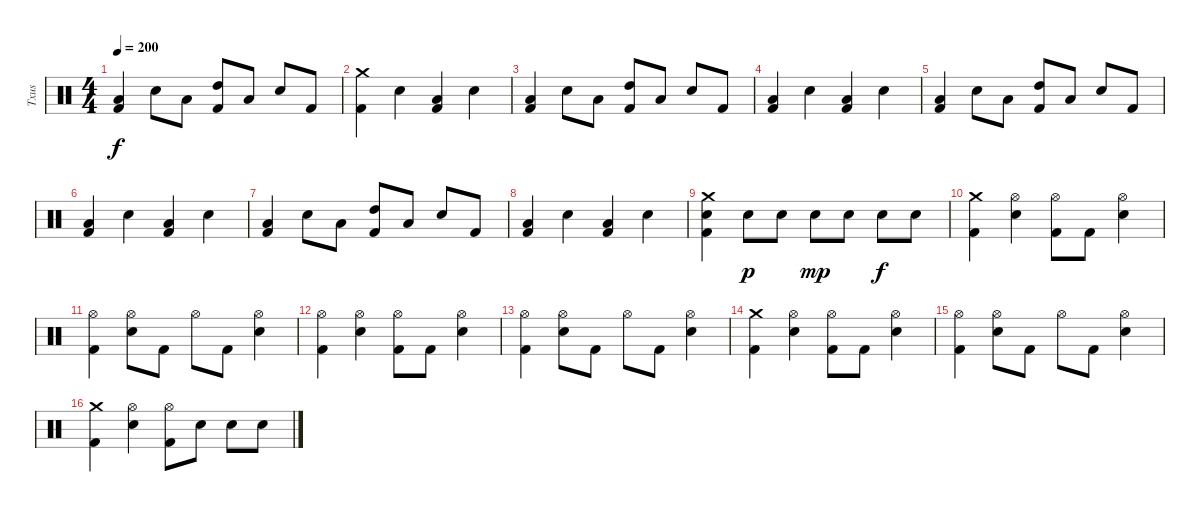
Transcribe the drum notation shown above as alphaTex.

\track ("Txus" "Txus") {instrument percussion}
\staff {score}
\articulation defaults
\ts (4 4)
\tempo 200
\clef neutral
\ks c
("Low Tom (hit)" "Kick (hit) 2").4{dy f} "Snare (hit) 2".8 "Low Tom (hit)".8 ("High Tom (hit)" "Kick (hit) 2").8 "Low Tom (hit)".8 "Snare (hit) 2".8 "Kick (hit) 2".8 |
("Crash medium (hit)" "Kick (hit) 2").4 "Snare (hit) 2".4 ("Low Tom (hit)" "Kick (hit) 2").4 "Snare (hit) 2".4 |
("Low Tom (hit)" "Kick (hit) 2").4 "Snare (hit) 2".8 "Low Tom (hit)".8 ("High Tom (hit)" "Kick (hit) 2").8 "Low Tom (hit)".8 "Snare (hit) 2".8 "Kick (hit) 2".8 |
("Low Tom (hit)" "Kick (hit) 2").4 "Snare (hit) 2".4 ("Low Tom (hit)" "Kick (hit) 2").4 "Snare (hit) 2".4 |
("Low Tom (hit)" "Kick (hit) 2").4 "Snare (hit) 2".8 "Low Tom (hit)".8 ("High Tom (hit)" "Kick (hit) 2").8 "Low Tom (hit)".8 "Snare (hit) 2".8 "Kick (hit) 2".8 |
("Low Tom (hit)" "Kick (hit) 2").4 "Snare (hit) 2".4 ("Low Tom (hit)" "Kick (hit) 2").4 "Snare (hit) 2".4 |
("Low Tom (hit)" "Kick (hit) 2").4 "Snare (hit) 2".8 "Low Tom (hit)".8 ("High Tom (hit)" "Kick (hit) 2").8 "Low Tom (hit)".8 "Snare (hit) 2".8 "Kick (hit) 2".8 |
("Low Tom (hit)" "Kick (hit) 2").4 "Snare (hit) 2".4 ("Low Tom (hit)" "Kick (hit) 2").4 "Snare (hit) 2".4 |
("Crash medium (hit)" "Snare (hit) 2" "Kick (hit) 2").4 "Snare (hit) 2".8{dy p} "Snare (hit) 2".8 "Snare (hit) 2".8{dy mp} "Snare (hit) 2".8 "Snare (hit) 2".8{dy f} "Snare (hit) 2".8 |
("Crash medium (hit)" "Kick (hit) 2").4 ("Hi-Hat (open)" "Snare (hit) 2").4 ("Hi-Hat (open)" "Kick (hit) 2").8 "Kick (hit) 2".8 ("Hi-Hat (open)" "Snare (hit) 2").4 |
("Hi-Hat (open)" "Kick (hit) 2").4 ("Hi-Hat (open)" "Snare (hit) 2").8 "Kick (hit) 2".8 "Hi-Hat (open)".8 "Kick (hit) 2".8 ("Hi-Hat (open)" "Snare (hit) 2").4 |
("Hi-Hat (open)" "Kick (hit) 2").4 ("Hi-Hat (open)" "Snare (hit) 2").4 ("Hi-Hat (open)" "Kick (hit) 2").8 "Kick (hit) 2".8 ("Hi-Hat (open)" "Snare (hit) 2").4 |
("Hi-Hat (open)" "Kick (hit) 2").4 ("Hi-Hat (open)" "Snare (hit) 2").8 "Kick (hit) 2".8 "Hi-Hat (open)".8 "Kick (hit) 2".8 ("Hi-Hat (open)" "Snare (hit) 2").4 |
("Crash medium (hit)" "Kick (hit) 2").4 ("Hi-Hat (open)" "Snare (hit) 2").4 ("Hi-Hat (open)" "Kick (hit) 2").8 "Kick (hit) 2".8 ("Hi-Hat (open)" "Snare (hit) 2").4 |
("Hi-Hat (open)" "Kick (hit) 2").4 ("Hi-Hat (open)" "Snare (hit) 2").8 "Kick (hit) 2".8 "Hi-Hat (open)".8 "Kick (hit) 2".8 ("Hi-Hat (open)" "Snare (hit) 2").4 |
("Crash medium (hit)" "Kick (hit) 2").4 ("Hi-Hat (open)" "Snare (hit) 2").4 ("Hi-Hat (open)" "Kick (hit) 2").8 "Snare (hit) 2".8 "Snare (hit) 2".8 "Snare (hit) 2".8
